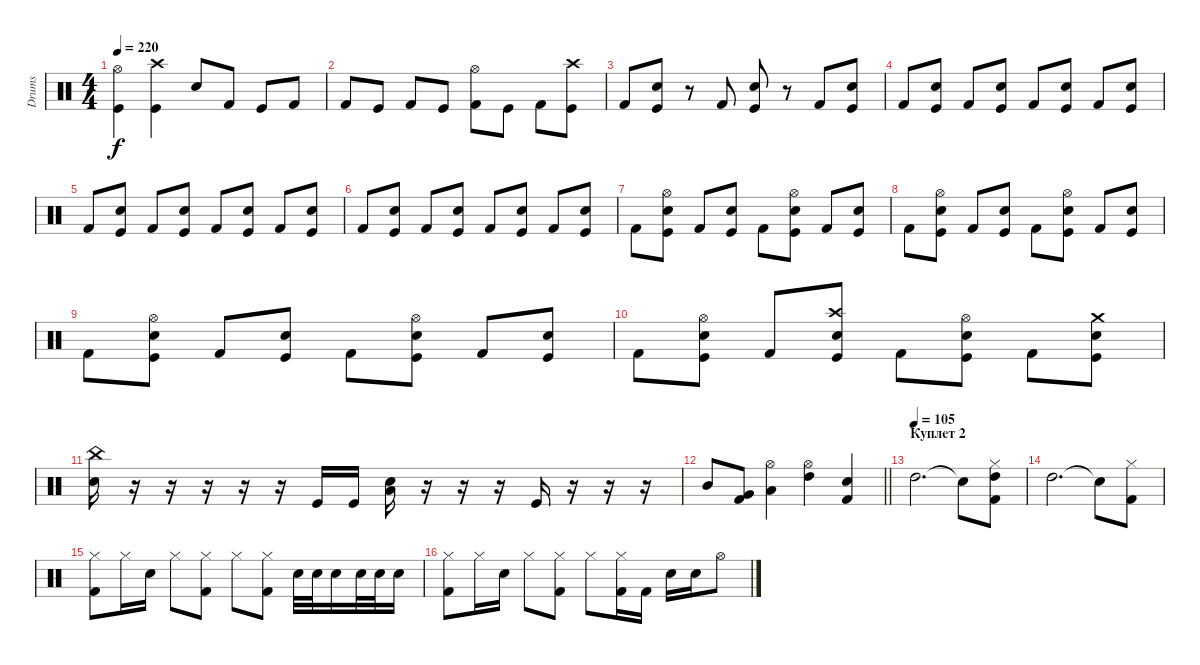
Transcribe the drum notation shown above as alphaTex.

\track ("Drums" "Drums") {instrument percussion}
\staff {score}
\articulation defaults
\ts (4 4)
\tempo 220
\clef neutral
\ks c
("Hi-Hat (open)" "Kick (hit)").4{dy f} ("Crash high (hit)" "Kick (hit)").4 "Electric Snare (hit)".8 "Kick (hit) 2".8 "Kick (hit)".8 "Kick (hit) 2".8 |
"Kick (hit) 2".8 "Kick (hit)".8 "Kick (hit) 2".8 "Kick (hit)".8 ("Hi-Hat (open)" "Kick (hit) 2").8 "Kick (hit)".8 "Kick (hit) 2".8 ("Crash high (hit)" "Kick (hit)").8 |
"Kick (hit) 2".8 ("Electric Snare (hit)" "Kick (hit)").8 r.8 "Kick (hit) 2".8 ("Electric Snare (hit)" "Kick (hit)").8 r.8 "Kick (hit) 2".8 ("Electric Snare (hit)" "Kick (hit)").8 |
"Kick (hit) 2".8 ("Electric Snare (hit)" "Kick (hit)").8 "Kick (hit) 2".8 ("Electric Snare (hit)" "Kick (hit)").8 "Kick (hit) 2".8 ("Electric Snare (hit)" "Kick (hit)").8 "Kick (hit) 2".8 ("Electric Snare (hit)" "Kick (hit)").8 |
"Kick (hit) 2".8 ("Electric Snare (hit)" "Kick (hit)").8 "Kick (hit) 2".8 ("Electric Snare (hit)" "Kick (hit)").8 "Kick (hit) 2".8 ("Electric Snare (hit)" "Kick (hit)").8 "Kick (hit) 2".8 ("Electric Snare (hit)" "Kick (hit)").8 |
"Kick (hit) 2".8 ("Electric Snare (hit)" "Kick (hit)").8 "Kick (hit) 2".8 ("Electric Snare (hit)" "Kick (hit)").8 "Kick (hit) 2".8 ("Electric Snare (hit)" "Kick (hit)").8 "Kick (hit) 2".8 ("Electric Snare (hit)" "Kick (hit)").8 |
"Kick (hit) 2".8 ("Hi-Hat (open)" "Electric Snare (hit)" "Kick (hit)").8 "Kick (hit) 2".8 ("Electric Snare (hit)" "Kick (hit)").8 "Kick (hit) 2".8 ("Hi-Hat (open)" "Electric Snare (hit)" "Kick (hit)").8 "Kick (hit) 2".8 ("Electric Snare (hit)" "Kick (hit)").8 |
"Kick (hit) 2".8 ("Hi-Hat (open)" "Electric Snare (hit)" "Kick (hit)").8 "Kick (hit) 2".8 ("Electric Snare (hit)" "Kick (hit)").8 "Kick (hit) 2".8 ("Hi-Hat (open)" "Electric Snare (hit)" "Kick (hit)").8 "Kick (hit) 2".8 ("Electric Snare (hit)" "Kick (hit)").8 |
"Kick (hit) 2".8 ("Hi-Hat (open)" "Electric Snare (hit)" "Kick (hit)").8 "Kick (hit) 2".8 ("Electric Snare (hit)" "Kick (hit)").8 "Kick (hit) 2".8 ("Hi-Hat (open)" "Electric Snare (hit)" "Kick (hit)").8 "Kick (hit) 2".8 ("Electric Snare (hit)" "Kick (hit)").8 |
"Kick (hit) 2".8 ("Hi-Hat (open)" "Electric Snare (hit)" "Kick (hit)").8 "Kick (hit) 2".8 ("Crash high (hit)" "Electric Snare (hit)" "Kick (hit)").8 "Kick (hit) 2".8 ("Hi-Hat (open)" "Electric Snare (hit)" "Kick (hit)").8 "Kick (hit) 2".8 ("Crash medium (hit)" "Electric Snare (hit)" "Kick (hit)").8 |
("China (hit)" "Electric Snare (hit)").16 r.16 r.16 r.16 r.16 r.16 "Kick (hit)".16 "Kick (hit)".16 ("Low Floor Tom (hit)" "Electric Snare (hit)").16 r.16 r.16 r.16 "Kick (hit)".16 r.16 r.16 r.16 |
\barLineRight lightlight "Mid Tom (hit)".8
("Kick (hit) 2" "Very Low Tom (hit)").8 ("Hi-Hat (open)" "Low Tom (hit)").4 ("Hi-Hat (open)" "High Tom (hit)").4 ("Kick (hit) 2" "Electric Snare (hit)").4 |
\section ("" "Куплет 2")
\tempo (105)
"High Tom (hit)".2{d} "Snare (hit)"{t}.8 ("Hi-Hat (closed)" "Kick (hit) 2" "High Tom (hit)").8 |
"High Tom (hit)".2{d} "Snare (hit)"{t}.8 ("Hi-Hat (closed)" "Kick (hit) 2").8 |
("Hi-Hat (closed)" "Kick (hit) 2").8 "Hi-Hat (closed)".16 "Electric Snare (hit)".16 "Hi-Hat (closed)".8 ("Hi-Hat (closed)" "Kick (hit) 2").8 "Hi-Hat (closed)".8 ("Hi-Hat (closed)" "Kick (hit) 2").8 "Electric Snare (hit)".32 "Electric Snare (hit)".32 "Electric Snare (hit)".16 "Electric Snare (hit)".32 "Electric Snare (hit)".32 "Electric Snare (hit)".16 |
("Hi-Hat (closed)" "Kick (hit) 2").8 "Hi-Hat (closed)".16 "Electric Snare (hit)".16 "Hi-Hat (closed)".8 ("Hi-Hat (closed)" "Kick (hit) 2").8 "Hi-Hat (closed)".8 ("Hi-Hat (closed)" "Kick (hit) 2").16 "Kick (hit) 2".16 "Electric Snare (hit)".16 "Electric Snare (hit)".16 "Hi-Hat (open)".8
